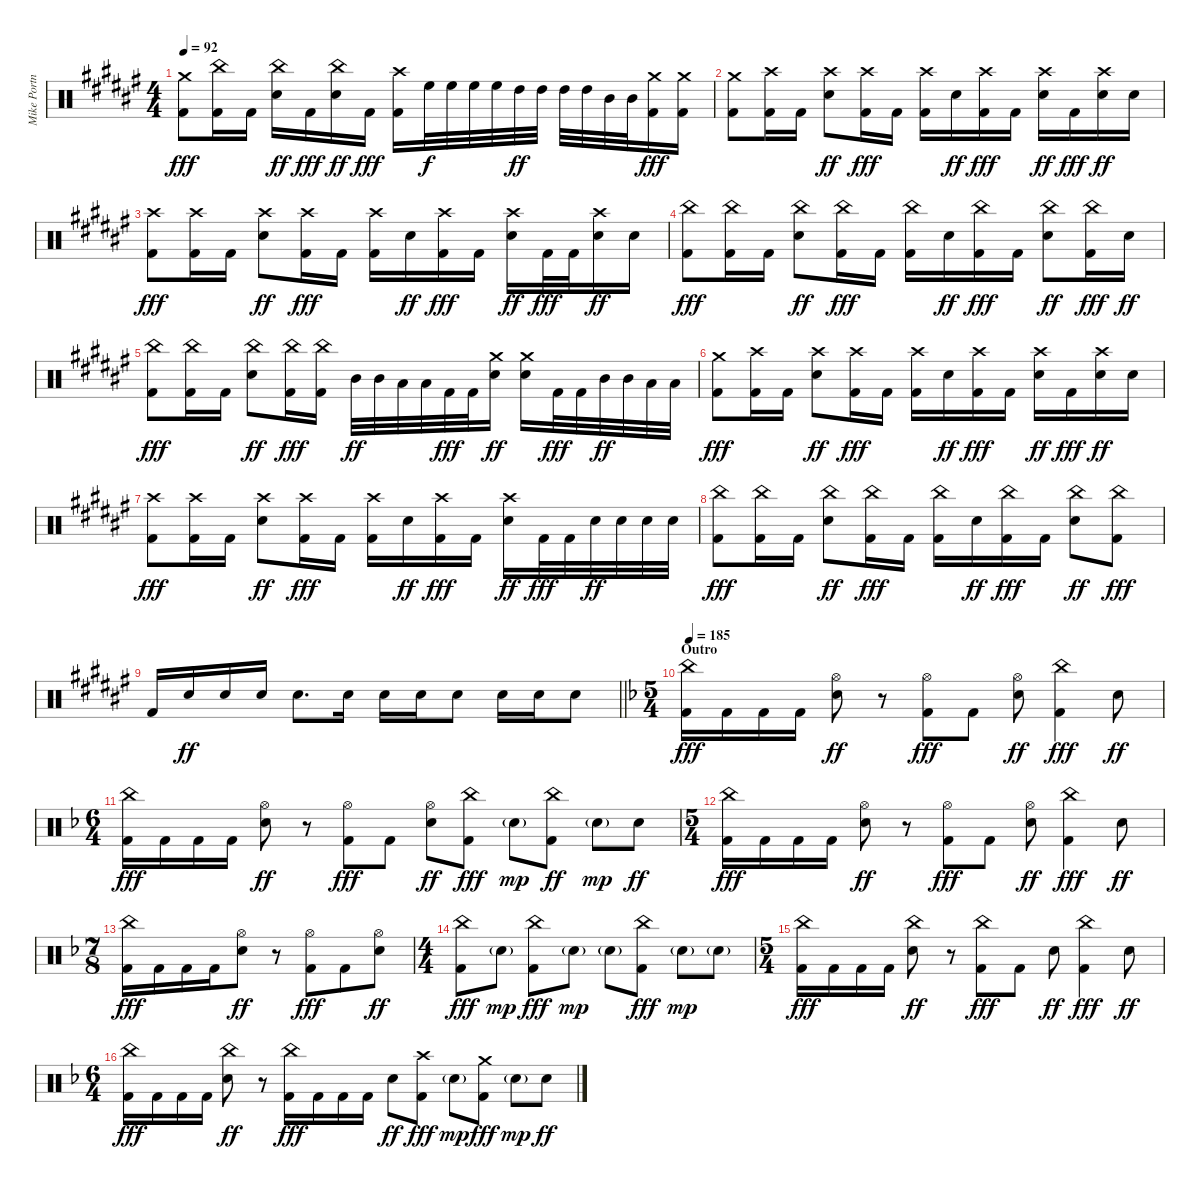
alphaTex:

\track ("Mike Portnoy" "Mike Portn") {instrument percussion}
\staff {score}
\articulation defaults
\ts (4 4)
\tempo 92
\clef neutral
\ks f#
("Crash medium (hit)" "Kick (hit) 2").8{dy fff} ("China (hit)" "Kick (hit) 2").16 "Kick (hit) 2".16 ("China (hit)" "Electric Snare (hit)").16{dy ff} "Kick (hit) 2".16{dy fff} ("China (hit)" "Electric Snare (hit)").16{dy ff} "Kick (hit) 2".16{dy fff} ("Crash high (hit)" "Kick (hit) 2").16 "High Floor Tom (hit)".32{dy f} "High Floor Tom (hit)".32 "High Floor Tom (hit)".32 "High Floor Tom (hit)".32 "High Tom (hit)".32{dy ff} "High Tom (hit)".32 "High Tom (hit)".32 "High Tom (hit)".32 "Mid Tom (hit)".32 "Mid Tom (hit)".32 ("Crash medium (hit)" "Kick (hit) 2").16{dy fff} ("Crash medium (hit)" "Kick (hit) 2").16 |
("Crash medium (hit)" "Kick (hit) 2").8 ("Crash high (hit)" "Kick (hit) 2").16 "Kick (hit) 2".16 ("Crash high (hit)" "Electric Snare (hit)").8{dy ff} ("Crash high (hit)" "Kick (hit) 2").16{dy fff} "Kick (hit) 2".16 ("Crash high (hit)" "Kick (hit) 2").16 "Electric Snare (hit)".16{dy ff} ("Crash high (hit)" "Kick (hit) 2").16{dy fff} "Kick (hit) 2".16 ("Crash high (hit)" "Electric Snare (hit)").16{dy ff} "Kick (hit) 2".16{dy fff} ("Crash high (hit)" "Electric Snare (hit)").16{dy ff} "Electric Snare (hit)".16 |
("Crash high (hit)" "Kick (hit) 2").8{dy fff} ("Crash high (hit)" "Kick (hit) 2").16 "Kick (hit) 2".16 ("Crash high (hit)" "Electric Snare (hit)").8{dy ff} ("Crash high (hit)" "Kick (hit) 2").16{dy fff} "Kick (hit) 2".16 ("Crash high (hit)" "Kick (hit) 2").16 "Electric Snare (hit)".16{dy ff} ("Crash high (hit)" "Kick (hit) 2").16{dy fff} "Kick (hit) 2".16 ("Crash high (hit)" "Electric Snare (hit)").16{dy ff} "Kick (hit) 2".32{dy fff} "Kick (hit) 2".32 ("Crash high (hit)" "Electric Snare (hit)").16{dy ff} "Electric Snare (hit)".16 |
("China (hit)" "Kick (hit) 2").8{dy fff} ("China (hit)" "Kick (hit) 2").16 "Kick (hit) 2".16 ("China (hit)" "Electric Snare (hit)").8{dy ff} ("China (hit)" "Kick (hit) 2").16{dy fff} "Kick (hit) 2".16 ("China (hit)" "Kick (hit) 2").16 "Electric Snare (hit)".16{dy ff} ("China (hit)" "Kick (hit) 2").16{dy fff} "Kick (hit) 2".16 ("China (hit)" "Electric Snare (hit)").8{dy ff} ("China (hit)" "Kick (hit) 2").16{dy fff} "Electric Snare (hit)".16{dy ff} |
("China (hit)" "Kick (hit) 2").8{dy fff} ("China (hit)" "Kick (hit) 2").16 "Kick (hit) 2".16 ("China (hit)" "Electric Snare (hit)").8{dy ff} ("China (hit)" "Kick (hit) 2").16{dy fff} ("China (hit)" "Kick (hit) 2").16 "Mid Tom (hit)".32{dy ff} "Mid Tom (hit)".32 "Low Tom (hit)".32 "Low Tom (hit)".32 "Kick (hit) 2".32{dy fff} "Kick (hit) 2".32 ("Crash medium (hit)" "Electric Snare (hit)").16{dy ff} ("Crash medium (hit)" "Electric Snare (hit)").16 "Kick (hit) 2".32{dy fff} "Kick (hit) 2".32 "Mid Tom (hit)".32{dy ff} "Mid Tom (hit)".32 "Low Tom (hit)".32 "Low Tom (hit)".32 |
("Crash medium (hit)" "Kick (hit) 2").8{dy fff} ("Crash high (hit)" "Kick (hit) 2").16 "Kick (hit) 2".16 ("Crash high (hit)" "Electric Snare (hit)").8{dy ff} ("Crash high (hit)" "Kick (hit) 2").16{dy fff} "Kick (hit) 2".16 ("Crash high (hit)" "Kick (hit) 2").16 "Electric Snare (hit)".16{dy ff} ("Crash high (hit)" "Kick (hit) 2").16{dy fff} "Kick (hit) 2".16 ("Crash high (hit)" "Electric Snare (hit)").16{dy ff} "Kick (hit) 2".16{dy fff} ("Crash high (hit)" "Electric Snare (hit)").16{dy ff} "Electric Snare (hit)".16 |
("Crash high (hit)" "Kick (hit) 2").8{dy fff} ("Crash high (hit)" "Kick (hit) 2").16 "Kick (hit) 2".16 ("Crash high (hit)" "Electric Snare (hit)").8{dy ff} ("Crash high (hit)" "Kick (hit) 2").16{dy fff} "Kick (hit) 2".16 ("Crash high (hit)" "Kick (hit) 2").16 "Electric Snare (hit)".16{dy ff} ("Crash high (hit)" "Kick (hit) 2").16{dy fff} "Kick (hit) 2".16 ("Crash high (hit)" "Electric Snare (hit)").16{dy ff} "Kick (hit) 2".32{dy fff} "Kick (hit) 2".32 "Electric Snare (hit)".32{dy ff} "Electric Snare (hit)".32 "Electric Snare (hit)".32 "Electric Snare (hit)".32 |
("China (hit)" "Kick (hit) 2").8{dy fff} ("China (hit)" "Kick (hit) 2").16 "Kick (hit) 2".16 ("China (hit)" "Electric Snare (hit)").8{dy ff} ("China (hit)" "Kick (hit) 2").16{dy fff} "Kick (hit) 2".16 ("China (hit)" "Kick (hit) 2").16 "Electric Snare (hit)".16{dy ff} ("China (hit)" "Kick (hit) 2").16{dy fff} "Kick (hit) 2".16 ("China (hit)" "Electric Snare (hit)").8{dy ff} ("China (hit)" "Kick (hit) 2").8{dy fff} |
\barLineRight lightlight "Kick (hit) 2".16 "Electric Snare (hit)".16{dy ff} "Electric Snare (hit)".16 "Electric Snare (hit)".16 "Electric Snare (hit)".8{d} "Electric Snare (hit)".16 "Electric Snare (hit)".16 "Electric Snare (hit)".16 "Electric Snare (hit)".8 "Electric Snare (hit)".16 "Electric Snare (hit)".16 "Electric Snare (hit)".8
|
\ts (5 4)
\section ("" "Outro")
\tempo 185
\ks f
("China (hit)" "Kick (hit) 2").16{dy fff} "Kick (hit) 2".16 "Kick (hit) 2".16 "Kick (hit) 2".16 ("Hi-Hat (open)" "Electric Snare (hit)").8{dy ff} r.8 ("Hi-Hat (open)" "Kick (hit) 2").8{dy fff} "Kick (hit) 2".8 ("Hi-Hat (open)" "Electric Snare (hit)").8{dy ff} ("China (hit)" "Kick (hit) 2").4{dy fff} "Electric Snare (hit)".8{dy ff} |
\ts (6 4)
("China (hit)" "Kick (hit) 2").16{dy fff} "Kick (hit) 2".16 "Kick (hit) 2".16 "Kick (hit) 2".16 ("Hi-Hat (open)" "Electric Snare (hit)").8{dy ff} r.8 ("Hi-Hat (open)" "Kick (hit) 2").8{dy fff} "Kick (hit) 2".8 ("Hi-Hat (open)" "Electric Snare (hit)").8{dy ff} ("China (hit)" "Kick (hit) 2").8{dy fff} "Electric Snare (hit)"{g}.8{dy mp} ("China (hit)" "Kick (hit) 2").8{dy ff} "Electric Snare (hit)"{g}.8{dy mp} "Electric Snare (hit)".8{dy ff} |
\ts (5 4)
("China (hit)" "Kick (hit) 2").16{dy fff} "Kick (hit) 2".16 "Kick (hit) 2".16 "Kick (hit) 2".16 ("Hi-Hat (open)" "Electric Snare (hit)").8{dy ff} r.8 ("Hi-Hat (open)" "Kick (hit) 2").8{dy fff} "Kick (hit) 2".8 ("Hi-Hat (open)" "Electric Snare (hit)").8{dy ff} ("China (hit)" "Kick (hit) 2").4{dy fff} "Electric Snare (hit)".8{dy ff} |
\ts (7 8)
("China (hit)" "Kick (hit) 2").16{dy fff} "Kick (hit) 2".16 "Kick (hit) 2".16 "Kick (hit) 2".16 ("Hi-Hat (open)" "Electric Snare (hit)").8{dy ff} r.8 ("Hi-Hat (open)" "Kick (hit) 2").8{dy fff} "Kick (hit) 2".8 ("Hi-Hat (open)" "Electric Snare (hit)").8{dy ff} |
\ts (4 4)
("China (hit)" "Kick (hit) 2").8{dy fff} "Electric Snare (hit)"{g}.8{dy mp} ("China (hit)" "Kick (hit) 2").8{dy fff} "Electric Snare (hit)"{g}.8{dy mp} "Electric Snare (hit)"{g}.8 ("China (hit)" "Kick (hit) 2").8{dy fff} "Electric Snare (hit)"{g}.8{dy mp} "Electric Snare (hit)"{g}.8 |
\ts (5 4)
("China (hit)" "Kick (hit) 2").16{dy fff} "Kick (hit) 2".16 "Kick (hit) 2".16 "Kick (hit) 2".16 ("China (hit)" "Electric Snare (hit)").8{dy ff} r.8 ("China (hit)" "Kick (hit) 2").8{dy fff} "Kick (hit) 2".8 "Electric Snare (hit)".8{dy ff} ("China (hit)" "Kick (hit) 2").4{dy fff} "Electric Snare (hit)".8{dy ff} |
\ts (6 4)
("China (hit)" "Kick (hit) 2").16{dy fff} "Kick (hit) 2".16 "Kick (hit) 2".16 "Kick (hit) 2".16 ("China (hit)" "Electric Snare (hit)").8{dy ff} r.8 ("China (hit)" "Kick (hit) 2").16{dy fff} "Kick (hit) 2".16 "Kick (hit) 2".16 "Kick (hit) 2".16 "Electric Snare (hit)".8{dy ff} ("Crash high (hit)" "Kick (hit) 2").8{dy fff} "Electric Snare (hit)"{g}.8{dy mp} ("Crash medium (hit)" "Kick (hit) 2").8{dy fff} "Electric Snare (hit)"{g}.8{dy mp} "Electric Snare (hit)".8{dy ff}
